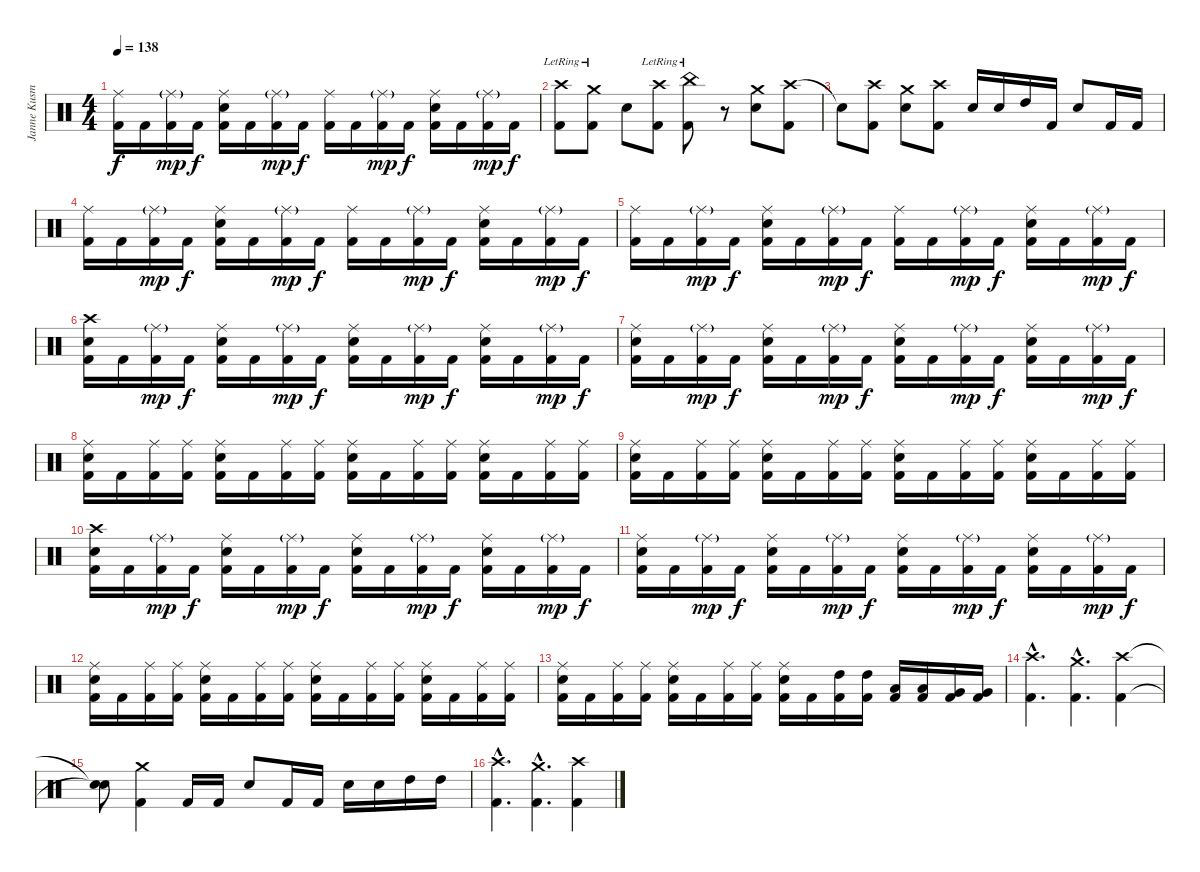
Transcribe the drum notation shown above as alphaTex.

\track ("Janne Kusmin" "Janne Kusm") {instrument percussion}
\staff {score}
\articulation defaults
\ts (4 4)
\tempo 138
\clef neutral
\ks c
("Ride (middle)" "Kick (hit) 2").16{dy f} "Kick (hit) 2".16 ("Ride (middle)"{g} "Kick (hit) 2").16{dy mp} "Kick (hit) 2".16{dy f} ("Ride (middle)" "Electric Snare (hit)" "Kick (hit) 2").16 "Kick (hit) 2".16 ("Ride (middle)"{g} "Kick (hit) 2").16{dy mp} "Kick (hit) 2".16{dy f} ("Ride (middle)" "Kick (hit) 2").16 "Kick (hit) 2".16 ("Ride (middle)"{g} "Kick (hit) 2").16{dy mp} "Kick (hit) 2".16{dy f} ("Ride (middle)" "Electric Snare (hit)" "Kick (hit) 2").16 "Kick (hit) 2".16 ("Ride (middle)"{g} "Kick (hit) 2").16{dy mp} "Kick (hit) 2".16{dy f} |
("Crash high (hit)"{lr} "Kick (hit) 2").8 ("Crash medium (hit)"{lr} "Kick (hit) 2").8 "Electric Snare (hit)".8 ("Crash high (hit)"{lr} "Kick (hit) 2").8 ("China (hit)"{lr} "Kick (hit) 2").8 r.8 ("Crash medium (hit)" "Electric Snare (hit)").8 ("Crash high (hit)" "Kick (hit) 2").8 |
"Snare (hit)"{t}.8 ("Crash high (hit)" "Kick (hit) 2").8 ("Crash medium (hit)" "Electric Snare (hit)").8 ("Crash high (hit)" "Kick (hit) 2").8 "Electric Snare (hit)".16 "Electric Snare (hit)".16 "High Tom (hit)".16 "Kick (hit) 2".16 "Electric Snare (hit)".8 "Kick (hit) 2".16 "Kick (hit) 2".16 |
("Ride (middle)" "Kick (hit) 2").16 "Kick (hit) 2".16 ("Ride (middle)"{g} "Kick (hit) 2").16{dy mp} "Kick (hit) 2".16{dy f} ("Ride (middle)" "Electric Snare (hit)" "Kick (hit) 2").16 "Kick (hit) 2".16 ("Ride (middle)"{g} "Kick (hit) 2").16{dy mp} "Kick (hit) 2".16{dy f} ("Ride (middle)" "Kick (hit) 2").16 "Kick (hit) 2".16 ("Ride (middle)"{g} "Kick (hit) 2").16{dy mp} "Kick (hit) 2".16{dy f} ("Ride (middle)" "Electric Snare (hit)" "Kick (hit) 2").16 "Kick (hit) 2".16 ("Ride (middle)"{g} "Kick (hit) 2").16{dy mp} "Kick (hit) 2".16{dy f} |
("Ride (middle)" "Kick (hit) 2").16 "Kick (hit) 2".16 ("Ride (middle)"{g} "Kick (hit) 2").16{dy mp} "Kick (hit) 2".16{dy f} ("Ride (middle)" "Electric Snare (hit)" "Kick (hit) 2").16 "Kick (hit) 2".16 ("Ride (middle)"{g} "Kick (hit) 2").16{dy mp} "Kick (hit) 2".16{dy f} ("Ride (middle)" "Kick (hit) 2").16 "Kick (hit) 2".16 ("Ride (middle)"{g} "Kick (hit) 2").16{dy mp} "Kick (hit) 2".16{dy f} ("Ride (middle)" "Electric Snare (hit)" "Kick (hit) 2").16 "Kick (hit) 2".16 ("Ride (middle)"{g} "Kick (hit) 2").16{dy mp} "Kick (hit) 2".16{dy f} |
("Crash high (hit)" "Electric Snare (hit)" "Kick (hit) 2").16 "Kick (hit) 2".16 ("Ride (middle)"{g} "Kick (hit) 2").16{dy mp} "Kick (hit) 2".16{dy f} ("Ride (middle)" "Electric Snare (hit)" "Kick (hit) 2").16 "Kick (hit) 2".16 ("Ride (middle)"{g} "Kick (hit) 2").16{dy mp} "Kick (hit) 2".16{dy f} ("Ride (middle)" "Electric Snare (hit)" "Kick (hit) 2").16 "Kick (hit) 2".16 ("Ride (middle)"{g} "Kick (hit) 2").16{dy mp} "Kick (hit) 2".16{dy f} ("Ride (middle)" "Electric Snare (hit)" "Kick (hit) 2").16 "Kick (hit) 2".16 ("Ride (middle)"{g} "Kick (hit) 2").16{dy mp} "Kick (hit) 2".16{dy f} |
("Ride (middle)" "Electric Snare (hit)" "Kick (hit) 2").16 "Kick (hit) 2".16 ("Ride (middle)"{g} "Kick (hit) 2").16{dy mp} "Kick (hit) 2".16{dy f} ("Ride (middle)" "Electric Snare (hit)" "Kick (hit) 2").16 "Kick (hit) 2".16 ("Ride (middle)"{g} "Kick (hit) 2").16{dy mp} "Kick (hit) 2".16{dy f} ("Ride (middle)" "Electric Snare (hit)" "Kick (hit) 2").16 "Kick (hit) 2".16 ("Ride (middle)"{g} "Kick (hit) 2").16{dy mp} "Kick (hit) 2".16{dy f} ("Ride (middle)" "Electric Snare (hit)" "Kick (hit) 2").16 "Kick (hit) 2".16 ("Ride (middle)"{g} "Kick (hit) 2").16{dy mp} "Kick (hit) 2".16{dy f} |
("Ride (middle)" "Electric Snare (hit)" "Kick (hit) 2").16 "Kick (hit) 2".16 ("Ride (middle)" "Kick (hit) 2").16 ("Ride (middle)" "Kick (hit) 2").16 ("Ride (middle)" "Electric Snare (hit)" "Kick (hit) 2").16 "Kick (hit) 2".16 ("Ride (middle)" "Kick (hit) 2").16 ("Ride (middle)" "Kick (hit) 2").16 ("Ride (middle)" "Electric Snare (hit)" "Kick (hit) 2").16 "Kick (hit) 2".16 ("Ride (middle)" "Kick (hit) 2").16 ("Ride (middle)" "Kick (hit) 2").16 ("Ride (middle)" "Electric Snare (hit)" "Kick (hit) 2").16 "Kick (hit) 2".16 ("Ride (middle)" "Kick (hit) 2").16 ("Ride (middle)" "Kick (hit) 2").16 |
("Ride (middle)" "Electric Snare (hit)" "Kick (hit) 2").16 "Kick (hit) 2".16 ("Ride (middle)" "Kick (hit) 2").16 ("Ride (middle)" "Kick (hit) 2").16 ("Ride (middle)" "Electric Snare (hit)" "Kick (hit) 2").16 "Kick (hit) 2".16 ("Ride (middle)" "Kick (hit) 2").16 ("Ride (middle)" "Kick (hit) 2").16 ("Ride (middle)" "Electric Snare (hit)" "Kick (hit) 2").16 "Kick (hit) 2".16 ("Ride (middle)" "Kick (hit) 2").16 ("Ride (middle)" "Kick (hit) 2").16 ("Ride (middle)" "Electric Snare (hit)" "Kick (hit) 2").16 "Kick (hit) 2".16 ("Ride (middle)" "Kick (hit) 2").16 ("Ride (middle)" "Kick (hit) 2").16 |
("Crash high (hit)" "Electric Snare (hit)" "Kick (hit) 2").16 "Kick (hit) 2".16 ("Ride (middle)"{g} "Kick (hit) 2").16{dy mp} "Kick (hit) 2".16{dy f} ("Ride (middle)" "Electric Snare (hit)" "Kick (hit) 2").16 "Kick (hit) 2".16 ("Ride (middle)"{g} "Kick (hit) 2").16{dy mp} "Kick (hit) 2".16{dy f} ("Ride (middle)" "Electric Snare (hit)" "Kick (hit) 2").16 "Kick (hit) 2".16 ("Ride (middle)"{g} "Kick (hit) 2").16{dy mp} "Kick (hit) 2".16{dy f} ("Ride (middle)" "Electric Snare (hit)" "Kick (hit) 2").16 "Kick (hit) 2".16 ("Ride (middle)"{g} "Kick (hit) 2").16{dy mp} "Kick (hit) 2".16{dy f} |
("Ride (middle)" "Electric Snare (hit)" "Kick (hit) 2").16 "Kick (hit) 2".16 ("Ride (middle)"{g} "Kick (hit) 2").16{dy mp} "Kick (hit) 2".16{dy f} ("Ride (middle)" "Electric Snare (hit)" "Kick (hit) 2").16 "Kick (hit) 2".16 ("Ride (middle)"{g} "Kick (hit) 2").16{dy mp} "Kick (hit) 2".16{dy f} ("Ride (middle)" "Electric Snare (hit)" "Kick (hit) 2").16 "Kick (hit) 2".16 ("Ride (middle)"{g} "Kick (hit) 2").16{dy mp} "Kick (hit) 2".16{dy f} ("Ride (middle)" "Electric Snare (hit)" "Kick (hit) 2").16 "Kick (hit) 2".16 ("Ride (middle)"{g} "Kick (hit) 2").16{dy mp} "Kick (hit) 2".16{dy f} |
("Ride (middle)" "Electric Snare (hit)" "Kick (hit) 2").16 "Kick (hit) 2".16 ("Ride (middle)" "Kick (hit) 2").16 ("Ride (middle)" "Kick (hit) 2").16 ("Ride (middle)" "Electric Snare (hit)" "Kick (hit) 2").16 "Kick (hit) 2".16 ("Ride (middle)" "Kick (hit) 2").16 ("Ride (middle)" "Kick (hit) 2").16 ("Ride (middle)" "Electric Snare (hit)" "Kick (hit) 2").16 "Kick (hit) 2".16 ("Ride (middle)" "Kick (hit) 2").16 ("Ride (middle)" "Kick (hit) 2").16 ("Ride (middle)" "Electric Snare (hit)" "Kick (hit) 2").16 "Kick (hit) 2".16 ("Ride (middle)" "Kick (hit) 2").16 ("Ride (middle)" "Kick (hit) 2").16 |
("Ride (middle)" "Electric Snare (hit)" "Kick (hit) 2").16 "Kick (hit) 2".16 ("Ride (middle)" "Kick (hit) 2").16 ("Ride (middle)" "Kick (hit) 2").16 ("Ride (middle)" "Electric Snare (hit)" "Kick (hit) 2").16 "Kick (hit) 2".16 ("Ride (middle)" "Kick (hit) 2").16 ("Ride (middle)" "Kick (hit) 2").16 ("Ride (middle)" "Electric Snare (hit)" "Kick (hit) 2").16 "Kick (hit) 2".16 ("High Tom (hit)" "Kick (hit) 2").16 ("High Tom (hit)" "Kick (hit) 2").16 ("Low Tom (hit)" "Kick (hit) 2").16 ("Low Tom (hit)" "Kick (hit) 2").16 ("Very Low Tom (hit)" "Kick (hit) 2").16 ("Very Low Tom (hit)" "Kick (hit) 2").16 |
("Crash high (hit)"{hac} "Kick (hit) 2"{hac}).4{d} ("Crash medium (hit)"{hac} "Kick (hit) 2"{hac}).4{d} ("Crash high (hit)" "Kick (hit) 2").4 |
("Snare (hit)"{t} "Snare (hit)"{t}).8 ("Crash medium (hit)" "Kick (hit) 2").4 "Kick (hit) 2".16 "Kick (hit) 2".16 "Electric Snare (hit)".8 "Kick (hit) 2".16 "Kick (hit) 2".16 "Electric Snare (hit)".16 "Electric Snare (hit)".16 "High Tom (hit)".16 "High Tom (hit)".16 |
("Crash high (hit)"{hac} "Kick (hit) 2"{hac}).4{d} ("Crash medium (hit)"{hac} "Kick (hit) 2"{hac}).4{d} ("Crash high (hit)" "Kick (hit) 2").4
